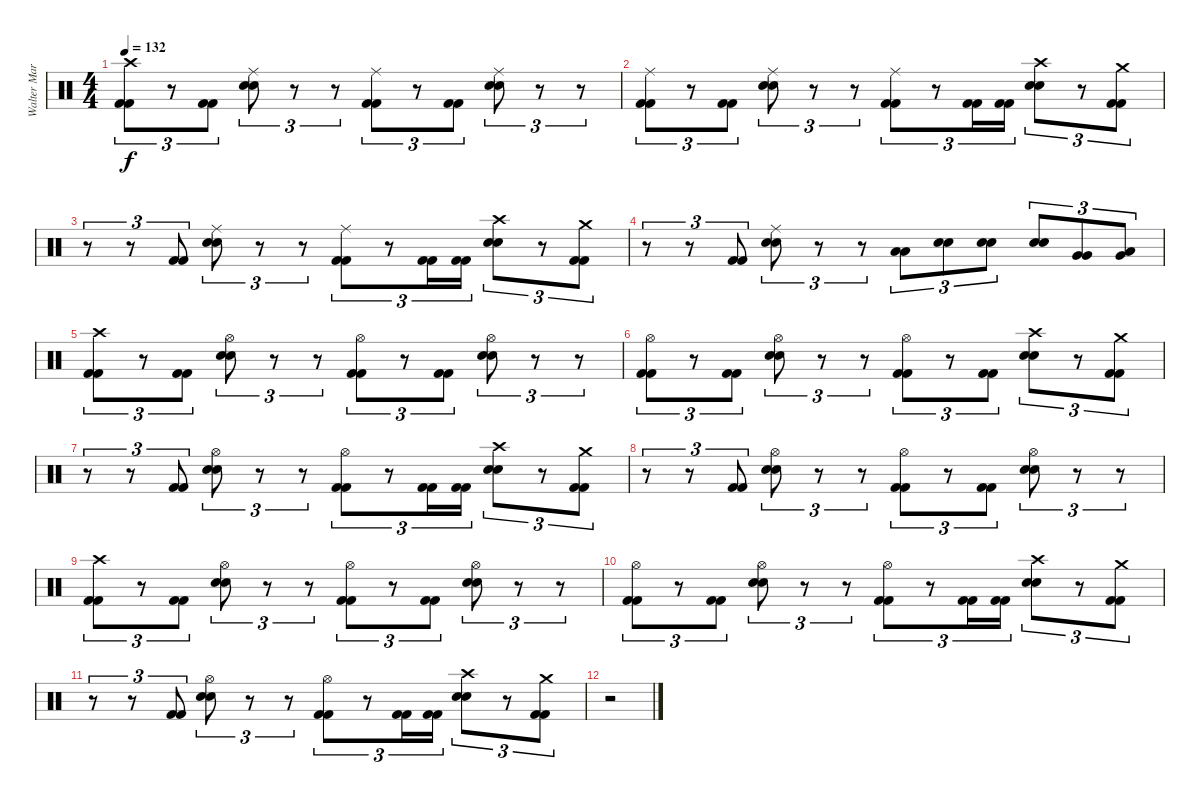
\track ("Walter Martinez (bateria)" "Walter Mar") {instrument percussion}
\staff {score}
\articulation defaults
\ts (4 4)
\tempo 132
\clef neutral
\ks c
("Crash high (hit)" "Kick (hit) 2" "Kick (hit) 2").8{tu (3 2) dy f} r.8{tu (3 2)} ("Kick (hit) 2" "Kick (hit) 2").8{tu (3 2)} ("Ride (middle)" "Snare (hit) 2" "Snare (hit) 2").8{tu (3 2)} r.8{tu (3 2)} r.8{tu (3 2)} ("Ride (middle)" "Kick (hit) 2" "Kick (hit) 2").8{tu (3 2)} r.8{tu (3 2)} ("Kick (hit) 2" "Kick (hit) 2").8{tu (3 2)} ("Ride (middle)" "Snare (hit) 2" "Snare (hit) 2").8{tu (3 2)} r.8{tu (3 2)} r.8{tu (3 2)} |
("Ride (middle)" "Kick (hit) 2" "Kick (hit) 2").8{tu (3 2)} r.8{tu (3 2)} ("Kick (hit) 2" "Kick (hit) 2").8{tu (3 2)} ("Ride (middle)" "Snare (hit) 2" "Snare (hit) 2").8{tu (3 2)} r.8{tu (3 2)} r.8{tu (3 2)} ("Ride (middle)" "Kick (hit) 2" "Kick (hit) 2").8{tu (3 2)} r.8{tu (3 2)} ("Kick (hit) 2" "Kick (hit) 2").16{tu (3 2)} ("Kick (hit) 2" "Kick (hit) 2").16{tu (3 2)} ("Crash high (hit)" "Snare (hit) 2" "Snare (hit) 2").8{tu (3 2)} r.8{tu (3 2)} ("Crash medium (hit)" "Kick (hit) 2" "Kick (hit) 2").8{tu (3 2)} |
r.8{tu (3 2)} r.8{tu (3 2)} ("Kick (hit) 2" "Kick (hit) 2").8{tu (3 2)} ("Ride (middle)" "Snare (hit) 2" "Snare (hit) 2").8{tu (3 2)} r.8{tu (3 2)} r.8{tu (3 2)} ("Ride (middle)" "Kick (hit) 2" "Kick (hit) 2").8{tu (3 2)} r.8{tu (3 2)} ("Kick (hit) 2" "Kick (hit) 2").16{tu (3 2)} ("Kick (hit) 2" "Kick (hit) 2").16{tu (3 2)} ("Crash high (hit)" "Snare (hit) 2" "Snare (hit) 2").8{tu (3 2)} r.8{tu (3 2)} ("Crash medium (hit)" "Kick (hit) 2" "Kick (hit) 2").8{tu (3 2)} |
r.8{tu (3 2)} r.8{tu (3 2)} ("Kick (hit) 2" "Kick (hit) 2").8{tu (3 2)} ("Ride (middle)" "Snare (hit) 2" "Snare (hit) 2").8{tu (3 2)} r.8{tu (3 2)} r.8{tu (3 2)} ("Low Tom (hit)" "Low Tom (hit)").8{tu (3 2)} ("Snare (hit) 2" "Snare (hit) 2").8{tu (3 2)} ("Snare (hit) 2" "Snare (hit) 2").8{tu (3 2)} ("Snare (hit) 2" "Snare (hit) 2").8{tu (3 2)} ("Very Low Tom (hit)" "Very Low Tom (hit)").8{tu (3 2)} ("Very Low Tom (hit)" "Low Floor Tom (hit)").8{tu (3 2)} |
("Crash high (hit)" "Kick (hit) 2" "Kick (hit) 2").8{tu (3 2)} r.8{tu (3 2)} ("Kick (hit) 2" "Kick (hit) 2").8{tu (3 2)} ("Hi-Hat (open)" "Snare (hit) 2" "Snare (hit) 2").8{tu (3 2)} r.8{tu (3 2)} r.8{tu (3 2)} ("Hi-Hat (open)" "Kick (hit) 2" "Kick (hit) 2").8{tu (3 2)} r.8{tu (3 2)} ("Kick (hit) 2" "Kick (hit) 2").8{tu (3 2)} ("Hi-Hat (open)" "Snare (hit) 2" "Snare (hit) 2").8{tu (3 2)} r.8{tu (3 2)} r.8{tu (3 2)} |
("Hi-Hat (open)" "Kick (hit) 2" "Kick (hit) 2").8{tu (3 2)} r.8{tu (3 2)} ("Kick (hit) 2" "Kick (hit) 2").8{tu (3 2)} ("Hi-Hat (open)" "Snare (hit) 2" "Snare (hit) 2").8{tu (3 2)} r.8{tu (3 2)} r.8{tu (3 2)} ("Hi-Hat (open)" "Kick (hit) 2" "Kick (hit) 2").8{tu (3 2)} r.8{tu (3 2)} ("Kick (hit) 2" "Kick (hit) 2").8{tu (3 2)} ("Crash high (hit)" "Snare (hit) 2" "Snare (hit) 2").8{tu (3 2)} r.8{tu (3 2)} ("Crash medium (hit)" "Kick (hit) 2" "Kick (hit) 2").8{tu (3 2)} |
r.8{tu (3 2)} r.8{tu (3 2)} ("Kick (hit) 2" "Kick (hit) 2").8{tu (3 2)} ("Hi-Hat (open)" "Snare (hit) 2" "Snare (hit) 2").8{tu (3 2)} r.8{tu (3 2)} r.8{tu (3 2)} ("Hi-Hat (open)" "Kick (hit) 2" "Kick (hit) 2").8{tu (3 2)} r.8{tu (3 2)} ("Kick (hit) 2" "Kick (hit) 2").16{tu (3 2)} ("Kick (hit) 2" "Kick (hit) 2").16{tu (3 2)} ("Crash high (hit)" "Snare (hit) 2" "Snare (hit) 2").8{tu (3 2)} r.8{tu (3 2)} ("Crash medium (hit)" "Kick (hit) 2" "Kick (hit) 2").8{tu (3 2)} |
r.8{tu (3 2)} r.8{tu (3 2)} ("Kick (hit) 2" "Kick (hit) 2").8{tu (3 2)} ("Hi-Hat (open)" "Snare (hit) 2" "Snare (hit) 2").8{tu (3 2)} r.8{tu (3 2)} r.8{tu (3 2)} ("Hi-Hat (open)" "Kick (hit) 2" "Kick (hit) 2").8{tu (3 2)} r.8{tu (3 2)} ("Kick (hit) 2" "Kick (hit) 2").8{tu (3 2)} ("Hi-Hat (open)" "Snare (hit) 2" "Snare (hit) 2").8{tu (3 2)} r.8{tu (3 2)} r.8{tu (3 2)} |
("Crash high (hit)" "Kick (hit) 2" "Kick (hit) 2").8{tu (3 2)} r.8{tu (3 2)} ("Kick (hit) 2" "Kick (hit) 2").8{tu (3 2)} ("Hi-Hat (open)" "Snare (hit) 2" "Snare (hit) 2").8{tu (3 2)} r.8{tu (3 2)} r.8{tu (3 2)} ("Hi-Hat (open)" "Kick (hit) 2" "Kick (hit) 2").8{tu (3 2)} r.8{tu (3 2)} ("Kick (hit) 2" "Kick (hit) 2").8{tu (3 2)} ("Hi-Hat (open)" "Snare (hit) 2" "Snare (hit) 2").8{tu (3 2)} r.8{tu (3 2)} r.8{tu (3 2)} |
("Hi-Hat (open)" "Kick (hit) 2" "Kick (hit) 2").8{tu (3 2)} r.8{tu (3 2)} ("Kick (hit) 2" "Kick (hit) 2").8{tu (3 2)} ("Hi-Hat (open)" "Snare (hit) 2" "Snare (hit) 2").8{tu (3 2)} r.8{tu (3 2)} r.8{tu (3 2)} ("Hi-Hat (open)" "Kick (hit) 2" "Kick (hit) 2").8{tu (3 2)} r.8{tu (3 2)} ("Kick (hit) 2" "Kick (hit) 2").16{tu (3 2)} ("Kick (hit) 2" "Kick (hit) 2").16{tu (3 2)} ("Crash high (hit)" "Snare (hit) 2" "Snare (hit) 2").8{tu (3 2)} r.8{tu (3 2)} ("Crash medium (hit)" "Kick (hit) 2" "Kick (hit) 2").8{tu (3 2)} |
r.8{tu (3 2)} r.8{tu (3 2)} ("Kick (hit) 2" "Kick (hit) 2").8{tu (3 2)} ("Hi-Hat (open)" "Snare (hit) 2" "Snare (hit) 2").8{tu (3 2)} r.8{tu (3 2)} r.8{tu (3 2)} ("Hi-Hat (open)" "Kick (hit) 2" "Kick (hit) 2").8{tu (3 2)} r.8{tu (3 2)} ("Kick (hit) 2" "Kick (hit) 2").16{tu (3 2)} ("Kick (hit) 2" "Kick (hit) 2").16{tu (3 2)} ("Crash high (hit)" "Snare (hit) 2" "Snare (hit) 2").8{tu (3 2)} r.8{tu (3 2)} ("Crash medium (hit)" "Kick (hit) 2" "Kick (hit) 2").8{tu (3 2)} |
r.2
